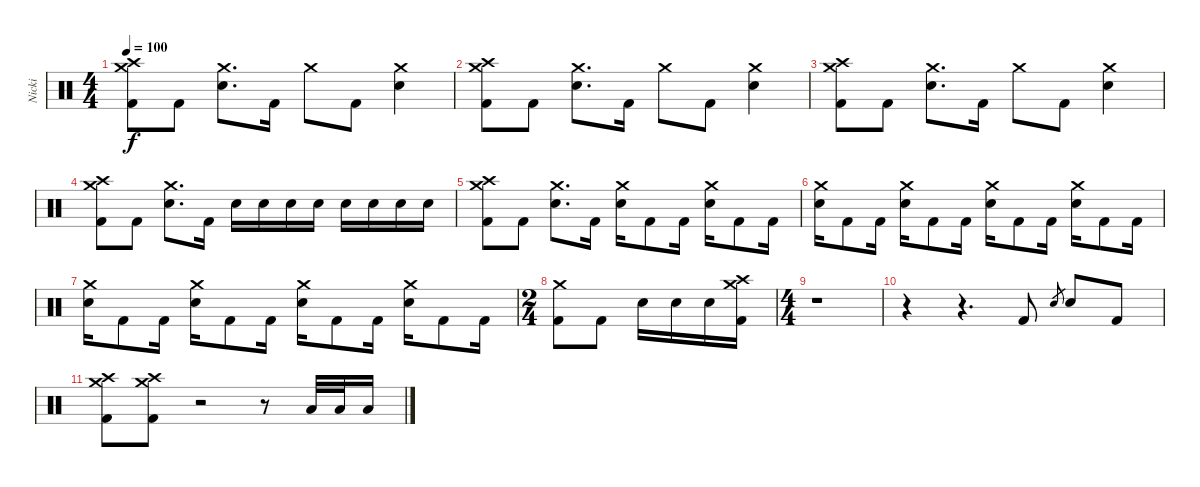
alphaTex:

\track ("Nicki" "Nicki") {instrument percussion}
\staff {score}
\articulation defaults
\ts (4 4)
\tempo 100
\clef neutral
\ks c
("Crash medium (hit)" "Crash high (hit)" "Kick (hit) 2").8{dy f} "Kick (hit) 2".8 ("Crash medium (hit)" "Snare (hit) 2").8{d} "Kick (hit) 2".16 "Crash medium (hit)".8 "Kick (hit) 2".8 ("Crash medium (hit)" "Snare (hit) 2").4 |
("Crash medium (hit)" "Crash high (hit)" "Kick (hit) 2").8 "Kick (hit) 2".8 ("Crash medium (hit)" "Snare (hit) 2").8{d} "Kick (hit) 2".16 "Crash medium (hit)".8 "Kick (hit) 2".8 ("Crash medium (hit)" "Snare (hit) 2").4 |
("Crash medium (hit)" "Crash high (hit)" "Kick (hit) 2").8 "Kick (hit) 2".8 ("Crash medium (hit)" "Snare (hit) 2").8{d} "Kick (hit) 2".16 "Crash medium (hit)".8 "Kick (hit) 2".8 ("Crash medium (hit)" "Snare (hit) 2").4 |
("Crash medium (hit)" "Crash high (hit)" "Kick (hit) 2").8 "Kick (hit) 2".8 ("Crash medium (hit)" "Snare (hit) 2").8{d} "Kick (hit) 2".16 "Snare (hit) 2".16 "Snare (hit) 2".16 "Snare (hit) 2".16 "Snare (hit) 2".16 "Snare (hit) 2".16 "Snare (hit) 2".16 "Snare (hit) 2".16 "Snare (hit) 2".16 |
("Crash medium (hit)" "Crash high (hit)" "Kick (hit) 2").8 "Kick (hit) 2".8 ("Crash medium (hit)" "Snare (hit) 2").8{d} "Kick (hit) 2".16 ("Crash medium (hit)" "Snare (hit) 2").16 "Kick (hit) 2".8 "Kick (hit) 2".16 ("Crash medium (hit)" "Snare (hit) 2").16 "Kick (hit) 2".8 "Kick (hit) 2".16 |
("Crash medium (hit)" "Snare (hit) 2").16 "Kick (hit) 2".8 "Kick (hit) 2".16 ("Crash medium (hit)" "Snare (hit) 2").16 "Kick (hit) 2".8 "Kick (hit) 2".16 ("Crash medium (hit)" "Snare (hit) 2").16 "Kick (hit) 2".8 "Kick (hit) 2".16 ("Crash medium (hit)" "Snare (hit) 2").16 "Kick (hit) 2".8 "Kick (hit) 2".16 |
("Crash medium (hit)" "Snare (hit) 2").16 "Kick (hit) 2".8 "Kick (hit) 2".16 ("Crash medium (hit)" "Snare (hit) 2").16 "Kick (hit) 2".8 "Kick (hit) 2".16 ("Crash medium (hit)" "Snare (hit) 2").16 "Kick (hit) 2".8 "Kick (hit) 2".16 ("Crash medium (hit)" "Snare (hit) 2").16 "Kick (hit) 2".8 "Kick (hit) 2".16 |
\ts (2 4)
("Crash medium (hit)" "Kick (hit) 2").8 "Kick (hit) 2".8 "Snare (hit) 2".16 "Snare (hit) 2".16 "Snare (hit) 2".16 ("Crash medium (hit)" "Crash high (hit)" "Kick (hit) 2").16 |
\ts (4 4)
r.1 |
r.4 r.4{d} "Kick (hit) 2".8 "Snare (hit) 2".8{gr} "Snare (hit) 2".8 "Kick (hit) 2".8 |
("Crash medium (hit)" "Crash high (hit)" "Kick (hit) 2").8 ("Crash medium (hit)" "Crash high (hit)" "Kick (hit) 2").8 r.2 r.8 "Low Floor Tom (hit)".32 "Low Floor Tom (hit)".32 "Low Floor Tom (hit)".16
